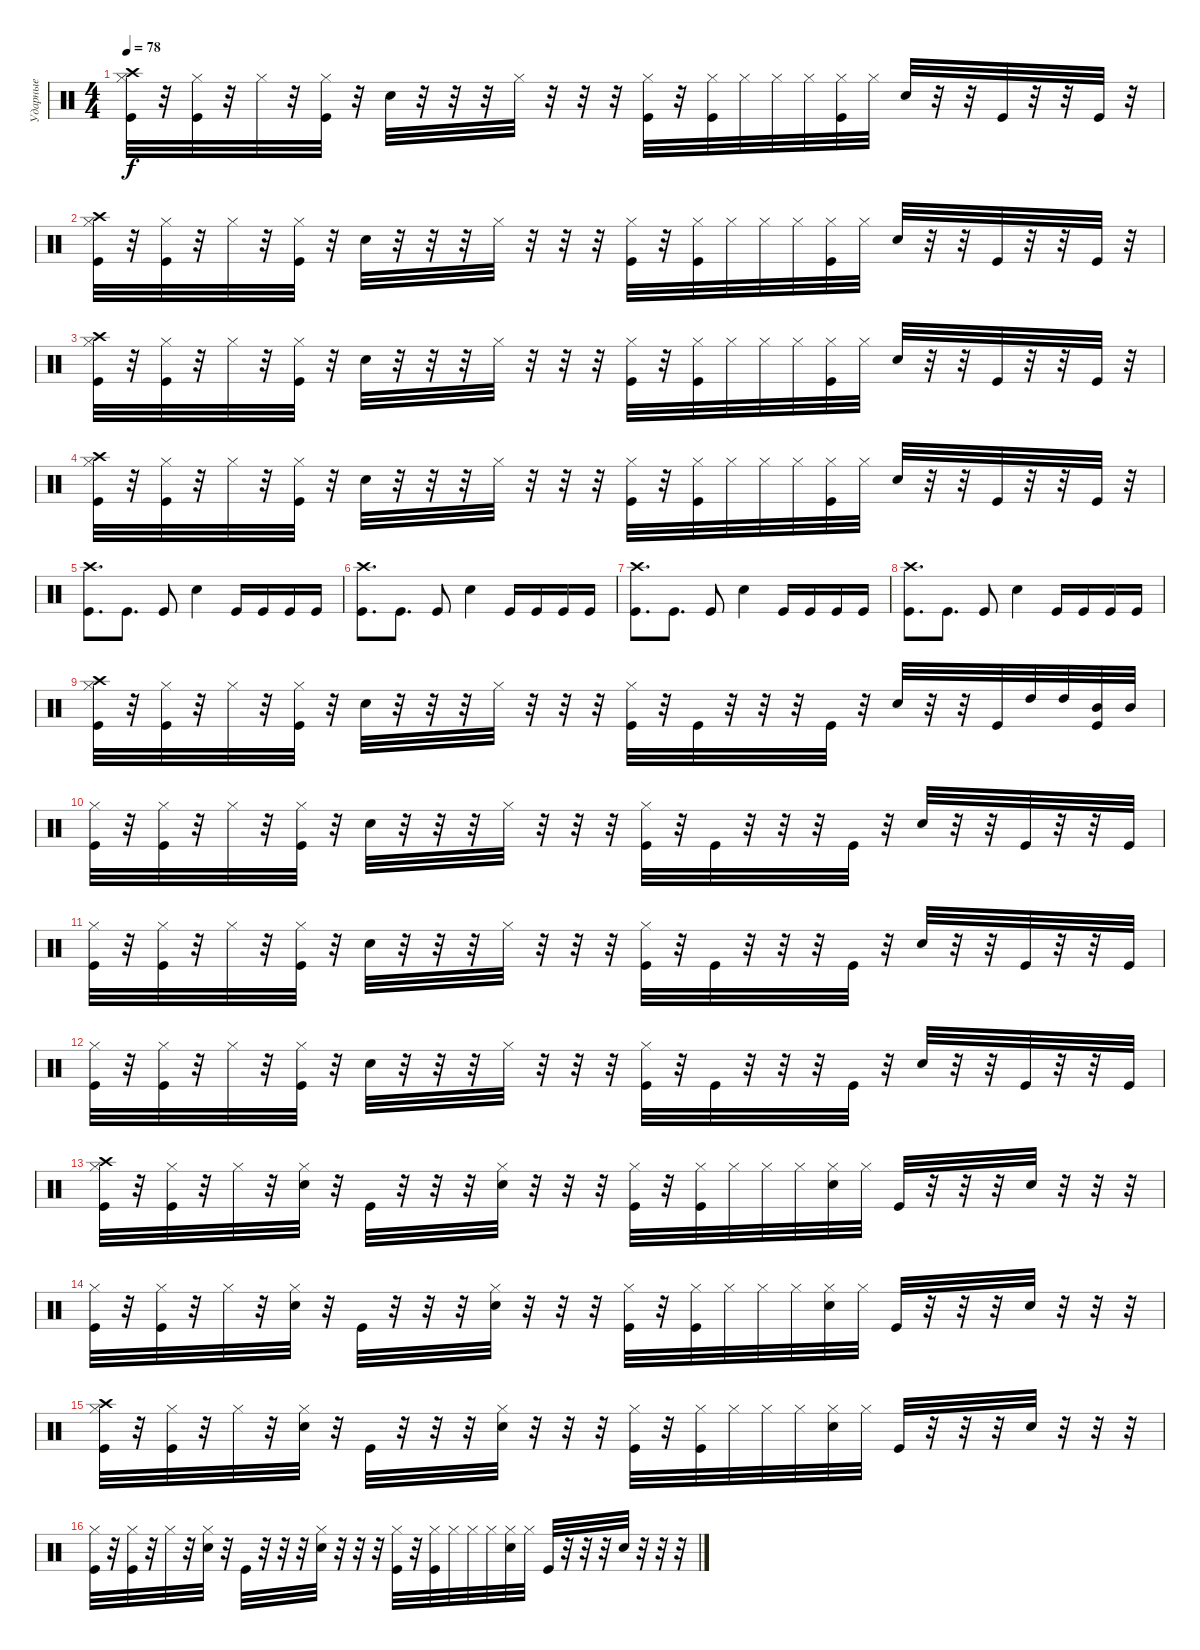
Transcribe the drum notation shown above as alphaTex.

\track ("Ударные" "Ударные") {instrument percussion}
\staff {score}
\articulation defaults
\ts (4 4)
\tempo 78
\clef neutral
\ks c
("Crash high (hit)" "Hi-Hat (closed)" "Kick (hit)").32{dy f} r.32 ("Hi-Hat (closed)" "Kick (hit)").32 r.32 "Hi-Hat (closed)".32 r.32 ("Hi-Hat (closed)" "Kick (hit)").32 r.32 "Electric Snare (hit)".32 r.32 r.32 r.32 "Hi-Hat (closed)".32 r.32 r.32 r.32 ("Hi-Hat (closed)" "Kick (hit)").32 r.32 ("Hi-Hat (closed)" "Kick (hit)").32 "Hi-Hat (closed)".32 "Hi-Hat (closed)".32 "Hi-Hat (closed)".32 ("Hi-Hat (closed)" "Kick (hit)").32 "Hi-Hat (closed)".32 "Electric Snare (hit)".32 r.32 r.32 "Kick (hit)".32 r.32 r.32 "Kick (hit)".32 r.32 |
("Crash high (hit)" "Hi-Hat (closed)" "Kick (hit)").32 r.32 ("Hi-Hat (closed)" "Kick (hit)").32 r.32 "Hi-Hat (closed)".32 r.32 ("Hi-Hat (closed)" "Kick (hit)").32 r.32 "Electric Snare (hit)".32 r.32 r.32 r.32 "Hi-Hat (closed)".32 r.32 r.32 r.32 ("Hi-Hat (closed)" "Kick (hit)").32 r.32 ("Hi-Hat (closed)" "Kick (hit)").32 "Hi-Hat (closed)".32 "Hi-Hat (closed)".32 "Hi-Hat (closed)".32 ("Hi-Hat (closed)" "Kick (hit)").32 "Hi-Hat (closed)".32 "Electric Snare (hit)".32 r.32 r.32 "Kick (hit)".32 r.32 r.32 "Kick (hit)".32 r.32 |
("Crash high (hit)" "Hi-Hat (closed)" "Kick (hit)").32 r.32 ("Hi-Hat (closed)" "Kick (hit)").32 r.32 "Hi-Hat (closed)".32 r.32 ("Hi-Hat (closed)" "Kick (hit)").32 r.32 "Electric Snare (hit)".32 r.32 r.32 r.32 "Hi-Hat (closed)".32 r.32 r.32 r.32 ("Hi-Hat (closed)" "Kick (hit)").32 r.32 ("Hi-Hat (closed)" "Kick (hit)").32 "Hi-Hat (closed)".32 "Hi-Hat (closed)".32 "Hi-Hat (closed)".32 ("Hi-Hat (closed)" "Kick (hit)").32 "Hi-Hat (closed)".32 "Electric Snare (hit)".32 r.32 r.32 "Kick (hit)".32 r.32 r.32 "Kick (hit)".32 r.32 |
("Crash high (hit)" "Hi-Hat (closed)" "Kick (hit)").32 r.32 ("Hi-Hat (closed)" "Kick (hit)").32 r.32 "Hi-Hat (closed)".32 r.32 ("Hi-Hat (closed)" "Kick (hit)").32 r.32 "Electric Snare (hit)".32 r.32 r.32 r.32 "Hi-Hat (closed)".32 r.32 r.32 r.32 ("Hi-Hat (closed)" "Kick (hit)").32 r.32 ("Hi-Hat (closed)" "Kick (hit)").32 "Hi-Hat (closed)".32 "Hi-Hat (closed)".32 "Hi-Hat (closed)".32 ("Hi-Hat (closed)" "Kick (hit)").32 "Hi-Hat (closed)".32 "Electric Snare (hit)".32 r.32 r.32 "Kick (hit)".32 r.32 r.32 "Kick (hit)".32 r.32 |
("Crash high (hit)" "Kick (hit)").8{d} "Kick (hit)".8{d} "Kick (hit)".8 "Electric Snare (hit)".4 "Kick (hit)".16 "Kick (hit)".16 "Kick (hit)".16 "Kick (hit)".16 |
("Crash high (hit)" "Kick (hit)").8{d} "Kick (hit)".8{d} "Kick (hit)".8 "Electric Snare (hit)".4 "Kick (hit)".16 "Kick (hit)".16 "Kick (hit)".16 "Kick (hit)".16 |
("Crash high (hit)" "Kick (hit)").8{d} "Kick (hit)".8{d} "Kick (hit)".8 "Electric Snare (hit)".4 "Kick (hit)".16 "Kick (hit)".16 "Kick (hit)".16 "Kick (hit)".16 |
("Crash high (hit)" "Kick (hit)").8{d} "Kick (hit)".8{d} "Kick (hit)".8 "Electric Snare (hit)".4 "Kick (hit)".16 "Kick (hit)".16 "Kick (hit)".16 "Kick (hit)".16 |
("Crash high (hit)" "Hi-Hat (closed)" "Kick (hit)").32 r.32 ("Hi-Hat (closed)" "Kick (hit)").32 r.32 "Hi-Hat (closed)".32 r.32 ("Hi-Hat (closed)" "Kick (hit)").32 r.32 "Electric Snare (hit)".32 r.32 r.32 r.32 "Hi-Hat (closed)".32 r.32 r.32 r.32 ("Hi-Hat (closed)" "Kick (hit)").32 r.32 "Kick (hit)".32 r.32 r.32 r.32 "Kick (hit)".32 r.32 "Electric Snare (hit)".32 r.32 r.32 "Kick (hit)".32 "High Tom (hit)".32 "High Tom (hit)".32 ("Mid Tom (hit)" "Kick (hit)").32 "Mid Tom (hit)".32 |
("Hi-Hat (closed)" "Kick (hit)").32 r.32 ("Hi-Hat (closed)" "Kick (hit)").32 r.32 "Hi-Hat (closed)".32 r.32 ("Hi-Hat (closed)" "Kick (hit)").32 r.32 "Electric Snare (hit)".32 r.32 r.32 r.32 "Hi-Hat (closed)".32 r.32 r.32 r.32 ("Hi-Hat (closed)" "Kick (hit)").32 r.32 "Kick (hit)".32 r.32 r.32 r.32 "Kick (hit)".32 r.32 "Electric Snare (hit)".32 r.32 r.32 "Kick (hit)".32 r.32 r.32 "Kick (hit)".32 |
("Hi-Hat (closed)" "Kick (hit)").32 r.32 ("Hi-Hat (closed)" "Kick (hit)").32 r.32 "Hi-Hat (closed)".32 r.32 ("Hi-Hat (closed)" "Kick (hit)").32 r.32 "Electric Snare (hit)".32 r.32 r.32 r.32 "Hi-Hat (closed)".32 r.32 r.32 r.32 ("Hi-Hat (closed)" "Kick (hit)").32 r.32 "Kick (hit)".32 r.32 r.32 r.32 "Kick (hit)".32 r.32 "Electric Snare (hit)".32 r.32 r.32 "Kick (hit)".32 r.32 r.32 "Kick (hit)".32 |
("Hi-Hat (closed)" "Kick (hit)").32 r.32 ("Hi-Hat (closed)" "Kick (hit)").32 r.32 "Hi-Hat (closed)".32 r.32 ("Hi-Hat (closed)" "Kick (hit)").32 r.32 "Electric Snare (hit)".32 r.32 r.32 r.32 "Hi-Hat (closed)".32 r.32 r.32 r.32 ("Hi-Hat (closed)" "Kick (hit)").32 r.32 "Kick (hit)".32 r.32 r.32 r.32 "Kick (hit)".32 r.32 "Electric Snare (hit)".32 r.32 r.32 "Kick (hit)".32 r.32 r.32 "Kick (hit)".32 |
("Crash high (hit)" "Hi-Hat (closed)" "Kick (hit)").32 r.32 ("Hi-Hat (closed)" "Kick (hit)").32 r.32 "Hi-Hat (closed)".32 r.32 ("Hi-Hat (closed)" "Electric Snare (hit)").32 r.32 "Kick (hit)".32 r.32 r.32 r.32 ("Hi-Hat (closed)" "Electric Snare (hit)").32 r.32 r.32 r.32 ("Hi-Hat (closed)" "Kick (hit)").32 r.32 ("Hi-Hat (closed)" "Kick (hit)").32 "Hi-Hat (closed)".32 "Hi-Hat (closed)".32 "Hi-Hat (closed)".32 ("Hi-Hat (closed)" "Electric Snare (hit)").32 "Hi-Hat (closed)".32 "Kick (hit)".32 r.32 r.32 r.32 "Electric Snare (hit)".32 r.32 r.32 r.32 |
("Hi-Hat (closed)" "Kick (hit)").32 r.32 ("Hi-Hat (closed)" "Kick (hit)").32 r.32 "Hi-Hat (closed)".32 r.32 ("Hi-Hat (closed)" "Electric Snare (hit)").32 r.32 "Kick (hit)".32 r.32 r.32 r.32 ("Hi-Hat (closed)" "Electric Snare (hit)").32 r.32 r.32 r.32 ("Hi-Hat (closed)" "Kick (hit)").32 r.32 ("Hi-Hat (closed)" "Kick (hit)").32 "Hi-Hat (closed)".32 "Hi-Hat (closed)".32 "Hi-Hat (closed)".32 ("Hi-Hat (closed)" "Electric Snare (hit)").32 "Hi-Hat (closed)".32 "Kick (hit)".32 r.32 r.32 r.32 "Electric Snare (hit)".32 r.32 r.32 r.32 |
("Crash high (hit)" "Hi-Hat (closed)" "Kick (hit)").32 r.32 ("Hi-Hat (closed)" "Kick (hit)").32 r.32 "Hi-Hat (closed)".32 r.32 ("Hi-Hat (closed)" "Electric Snare (hit)").32 r.32 "Kick (hit)".32 r.32 r.32 r.32 ("Hi-Hat (closed)" "Electric Snare (hit)").32 r.32 r.32 r.32 ("Hi-Hat (closed)" "Kick (hit)").32 r.32 ("Hi-Hat (closed)" "Kick (hit)").32 "Hi-Hat (closed)".32 "Hi-Hat (closed)".32 "Hi-Hat (closed)".32 ("Hi-Hat (closed)" "Electric Snare (hit)").32 "Hi-Hat (closed)".32 "Kick (hit)".32 r.32 r.32 r.32 "Electric Snare (hit)".32 r.32 r.32 r.32 |
("Hi-Hat (closed)" "Kick (hit)").32 r.32 ("Hi-Hat (closed)" "Kick (hit)").32 r.32 "Hi-Hat (closed)".32 r.32 ("Hi-Hat (closed)" "Electric Snare (hit)").32 r.32 "Kick (hit)".32 r.32 r.32 r.32 ("Hi-Hat (closed)" "Electric Snare (hit)").32 r.32 r.32 r.32 ("Hi-Hat (closed)" "Kick (hit)").32 r.32 ("Hi-Hat (closed)" "Kick (hit)").32 "Hi-Hat (closed)".32 "Hi-Hat (closed)".32 "Hi-Hat (closed)".32 ("Hi-Hat (closed)" "Electric Snare (hit)").32 "Hi-Hat (closed)".32 "Kick (hit)".32 r.32 r.32 r.32 "Electric Snare (hit)".32 r.32 r.32 r.32
